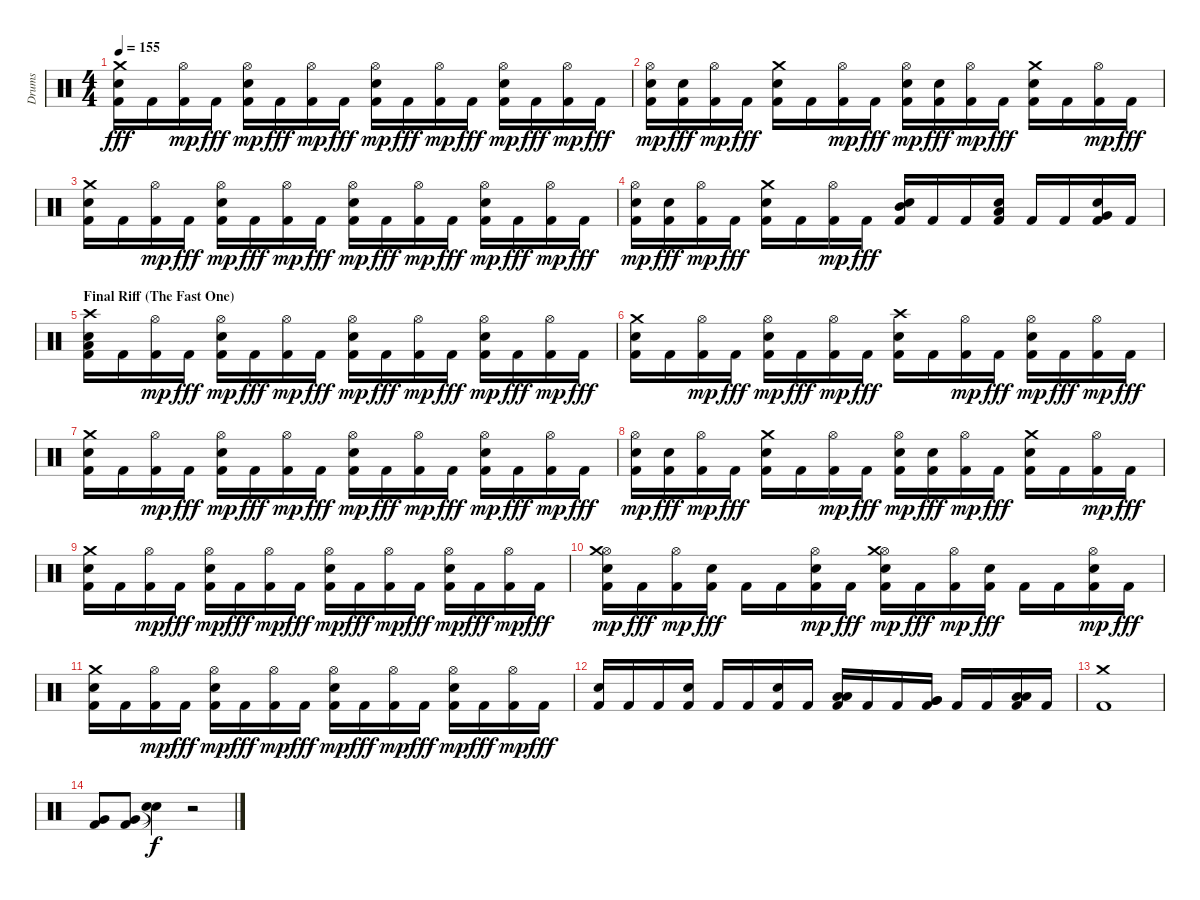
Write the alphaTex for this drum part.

\track ("Drums" "Drums") {instrument percussion}
\staff {score}
\articulation defaults
\ts (4 4)
\tempo 155
\clef neutral
\ks c
("Kick (hit) 2" "Snare (hit) 2" "Crash medium (hit)").16{dy fff} "Kick (hit) 2".16 ("Kick (hit) 2" "Hi-Hat (open)").16{dy mp} "Kick (hit) 2".16{dy fff} ("Kick (hit) 2" "Hi-Hat (open)" "Snare (hit) 2").16{dy mp} "Kick (hit) 2".16{dy fff} ("Kick (hit) 2" "Hi-Hat (open)").16{dy mp} "Kick (hit) 2".16{dy fff} ("Kick (hit) 2" "Hi-Hat (open)" "Snare (hit) 2").16{dy mp} "Kick (hit) 2".16{dy fff} ("Kick (hit) 2" "Hi-Hat (open)").16{dy mp} "Kick (hit) 2".16{dy fff} ("Kick (hit) 2" "Hi-Hat (open)" "Snare (hit) 2").16{dy mp} "Kick (hit) 2".16{dy fff} ("Kick (hit) 2" "Hi-Hat (open)").16{dy mp} "Kick (hit) 2".16{dy fff} |
("Kick (hit) 2" "Hi-Hat (open)" "Snare (hit) 2").16{dy mp} ("Kick (hit) 2" "Snare (hit) 2").16{dy fff} ("Kick (hit) 2" "Hi-Hat (open)").16{dy mp} "Kick (hit) 2".16{dy fff} ("Kick (hit) 2" "Snare (hit) 2" "Crash medium (hit)").16 "Kick (hit) 2".16 ("Kick (hit) 2" "Hi-Hat (open)").16{dy mp} "Kick (hit) 2".16{dy fff} ("Kick (hit) 2" "Hi-Hat (open)" "Snare (hit) 2").16{dy mp} ("Kick (hit) 2" "Snare (hit) 2").16{dy fff} ("Kick (hit) 2" "Hi-Hat (open)").16{dy mp} "Kick (hit) 2".16{dy fff} ("Kick (hit) 2" "Snare (hit) 2" "Crash medium (hit)").16 "Kick (hit) 2".16 ("Kick (hit) 2" "Hi-Hat (open)").16{dy mp} "Kick (hit) 2".16{dy fff} |
("Kick (hit) 2" "Snare (hit) 2" "Crash medium (hit)").16 "Kick (hit) 2".16 ("Kick (hit) 2" "Hi-Hat (open)").16{dy mp} "Kick (hit) 2".16{dy fff} ("Kick (hit) 2" "Hi-Hat (open)" "Snare (hit) 2").16{dy mp} "Kick (hit) 2".16{dy fff} ("Kick (hit) 2" "Hi-Hat (open)").16{dy mp} "Kick (hit) 2".16{dy fff} ("Kick (hit) 2" "Hi-Hat (open)" "Snare (hit) 2").16{dy mp} "Kick (hit) 2".16{dy fff} ("Kick (hit) 2" "Hi-Hat (open)").16{dy mp} "Kick (hit) 2".16{dy fff} ("Kick (hit) 2" "Hi-Hat (open)" "Snare (hit) 2").16{dy mp} "Kick (hit) 2".16{dy fff} ("Kick (hit) 2" "Hi-Hat (open)").16{dy mp} "Kick (hit) 2".16{dy fff} |
("Kick (hit) 2" "Hi-Hat (open)" "Snare (hit) 2").16{dy mp} ("Kick (hit) 2" "Snare (hit) 2").16{dy fff} ("Kick (hit) 2" "Hi-Hat (open)").16{dy mp} "Kick (hit) 2".16{dy fff} ("Kick (hit) 2" "Snare (hit) 2" "Crash medium (hit)").16 "Kick (hit) 2".16 ("Kick (hit) 2" "Hi-Hat (open)").16{dy mp} "Kick (hit) 2".16{dy fff} ("Kick (hit) 2" "Mid Tom (hit)" "Snare (hit) 2").16 "Kick (hit) 2".16 "Kick (hit) 2".16 ("Kick (hit) 2" "Low Tom (hit)" "Snare (hit) 2").16 "Kick (hit) 2".16 "Kick (hit) 2".16 ("Kick (hit) 2" "Very Low Tom (hit)" "Snare (hit) 2").16 "Kick (hit) 2".16 |
\section ("" "Final Riff (The Fast One)")
("Kick (hit) 2" "Low Floor Tom (hit)" "Snare (hit) 2" "Crash high (hit)").16 "Kick (hit) 2".16 ("Kick (hit) 2" "Hi-Hat (open)").16{dy mp} "Kick (hit) 2".16{dy fff} ("Kick (hit) 2" "Hi-Hat (open)" "Snare (hit) 2").16{dy mp} "Kick (hit) 2".16{dy fff} ("Kick (hit) 2" "Hi-Hat (open)").16{dy mp} "Kick (hit) 2".16{dy fff} ("Kick (hit) 2" "Hi-Hat (open)" "Snare (hit) 2").16{dy mp} "Kick (hit) 2".16{dy fff} ("Kick (hit) 2" "Hi-Hat (open)").16{dy mp} "Kick (hit) 2".16{dy fff} ("Kick (hit) 2" "Hi-Hat (open)" "Snare (hit) 2").16{dy mp} "Kick (hit) 2".16{dy fff} ("Kick (hit) 2" "Hi-Hat (open)").16{dy mp} "Kick (hit) 2".16{dy fff} |
("Kick (hit) 2" "Snare (hit) 2" "Crash medium (hit)").16 "Kick (hit) 2".16 ("Kick (hit) 2" "Hi-Hat (open)").16{dy mp} "Kick (hit) 2".16{dy fff} ("Kick (hit) 2" "Hi-Hat (open)" "Snare (hit) 2").16{dy mp} "Kick (hit) 2".16{dy fff} ("Kick (hit) 2" "Hi-Hat (open)").16{dy mp} "Kick (hit) 2".16{dy fff} ("Kick (hit) 2" "Snare (hit) 2" "Crash high (hit)").16 "Kick (hit) 2".16 ("Kick (hit) 2" "Hi-Hat (open)").16{dy mp} "Kick (hit) 2".16{dy fff} ("Kick (hit) 2" "Hi-Hat (open)" "Snare (hit) 2").16{dy mp} "Kick (hit) 2".16{dy fff} ("Kick (hit) 2" "Hi-Hat (open)").16{dy mp} "Kick (hit) 2".16{dy fff} |
("Kick (hit) 2" "Snare (hit) 2" "Crash medium (hit)").16 "Kick (hit) 2".16 ("Kick (hit) 2" "Hi-Hat (open)").16{dy mp} "Kick (hit) 2".16{dy fff} ("Kick (hit) 2" "Hi-Hat (open)" "Snare (hit) 2").16{dy mp} "Kick (hit) 2".16{dy fff} ("Kick (hit) 2" "Hi-Hat (open)").16{dy mp} "Kick (hit) 2".16{dy fff} ("Kick (hit) 2" "Hi-Hat (open)" "Snare (hit) 2").16{dy mp} "Kick (hit) 2".16{dy fff} ("Kick (hit) 2" "Hi-Hat (open)").16{dy mp} "Kick (hit) 2".16{dy fff} ("Kick (hit) 2" "Hi-Hat (open)" "Snare (hit) 2").16{dy mp} "Kick (hit) 2".16{dy fff} ("Kick (hit) 2" "Hi-Hat (open)").16{dy mp} "Kick (hit) 2".16{dy fff} |
("Kick (hit) 2" "Hi-Hat (open)" "Snare (hit) 2").16{dy mp} ("Kick (hit) 2" "Snare (hit) 2").16{dy fff} ("Kick (hit) 2" "Hi-Hat (open)").16{dy mp} "Kick (hit) 2".16{dy fff} ("Kick (hit) 2" "Snare (hit) 2" "Crash medium (hit)").16 "Kick (hit) 2".16 ("Kick (hit) 2" "Hi-Hat (open)").16{dy mp} "Kick (hit) 2".16{dy fff} ("Kick (hit) 2" "Hi-Hat (open)" "Snare (hit) 2").16{dy mp} ("Kick (hit) 2" "Snare (hit) 2").16{dy fff} ("Kick (hit) 2" "Hi-Hat (open)").16{dy mp} "Kick (hit) 2".16{dy fff} ("Kick (hit) 2" "Snare (hit) 2" "Crash medium (hit)").16 "Kick (hit) 2".16 ("Kick (hit) 2" "Hi-Hat (open)").16{dy mp} "Kick (hit) 2".16{dy fff} |
("Kick (hit) 2" "Snare (hit) 2" "Crash medium (hit)").16 "Kick (hit) 2".16 ("Kick (hit) 2" "Hi-Hat (open)").16{dy mp} "Kick (hit) 2".16{dy fff} ("Kick (hit) 2" "Hi-Hat (open)" "Snare (hit) 2").16{dy mp} "Kick (hit) 2".16{dy fff} ("Kick (hit) 2" "Hi-Hat (open)").16{dy mp} "Kick (hit) 2".16{dy fff} ("Kick (hit) 2" "Hi-Hat (open)" "Snare (hit) 2").16{dy mp} "Kick (hit) 2".16{dy fff} ("Kick (hit) 2" "Hi-Hat (open)").16{dy mp} "Kick (hit) 2".16{dy fff} ("Kick (hit) 2" "Hi-Hat (open)" "Snare (hit) 2").16{dy mp} "Kick (hit) 2".16{dy fff} ("Kick (hit) 2" "Hi-Hat (open)").16{dy mp} "Kick (hit) 2".16{dy fff} |
("Kick (hit) 2" "Hi-Hat (open)" "Snare (hit) 2" "Crash medium (hit)").16{dy mp} "Kick (hit) 2".16{dy fff} ("Kick (hit) 2" "Hi-Hat (open)").16{dy mp} ("Kick (hit) 2" "Snare (hit) 2").16{dy fff} "Kick (hit) 2".16 "Kick (hit) 2".16 ("Kick (hit) 2" "Hi-Hat (open)" "Snare (hit) 2").16{dy mp} "Kick (hit) 2".16{dy fff} ("Kick (hit) 2" "Hi-Hat (open)" "Snare (hit) 2" "Crash medium (hit)").16{dy mp} "Kick (hit) 2".16{dy fff} ("Kick (hit) 2" "Hi-Hat (open)").16{dy mp} ("Kick (hit) 2" "Snare (hit) 2").16{dy fff} "Kick (hit) 2".16 "Kick (hit) 2".16 ("Kick (hit) 2" "Hi-Hat (open)" "Snare (hit) 2").16{dy mp} "Kick (hit) 2".16{dy fff} |
("Kick (hit) 2" "Snare (hit) 2" "Crash medium (hit)").16 "Kick (hit) 2".16 ("Kick (hit) 2" "Hi-Hat (open)").16{dy mp} "Kick (hit) 2".16{dy fff} ("Kick (hit) 2" "Hi-Hat (open)" "Snare (hit) 2").16{dy mp} "Kick (hit) 2".16{dy fff} ("Kick (hit) 2" "Hi-Hat (open)").16{dy mp} "Kick (hit) 2".16{dy fff} ("Kick (hit) 2" "Hi-Hat (open)" "Snare (hit) 2").16{dy mp} "Kick (hit) 2".16{dy fff} ("Kick (hit) 2" "Hi-Hat (open)").16{dy mp} "Kick (hit) 2".16{dy fff} ("Kick (hit) 2" "Hi-Hat (open)" "Snare (hit) 2").16{dy mp} "Kick (hit) 2".16{dy fff} ("Kick (hit) 2" "Hi-Hat (open)").16{dy mp} "Kick (hit) 2".16{dy fff} |
("Kick (hit) 2" "Snare (hit) 2").16 "Kick (hit) 2".16 "Kick (hit) 2".16 ("Kick (hit) 2" "Snare (hit) 2").16 "Kick (hit) 2".16 "Kick (hit) 2".16 ("Kick (hit) 2" "Snare (hit) 2").16 "Kick (hit) 2".16 ("Kick (hit) 2" "Low Tom (hit)" "Low Tom (hit)").16 "Kick (hit) 2".16 "Kick (hit) 2".16 ("Kick (hit) 2" "Very Low Tom (hit)" "Very Low Tom (hit)").16 "Kick (hit) 2".16 "Kick (hit) 2".16 ("Kick (hit) 2" "Low Floor Tom (hit)" "Low Floor Tom (hit)").16 "Kick (hit) 2".16 |
("Kick (hit) 2" "Crash medium (hit)").1 |
("Kick (hit) 2" "Very Low Tom (hit)").8 ("Kick (hit) 2" "Very Low Tom (hit)").8 ("Snare (hit)"{t} "Snare (hit)"{t}).4{dy f} r.2
